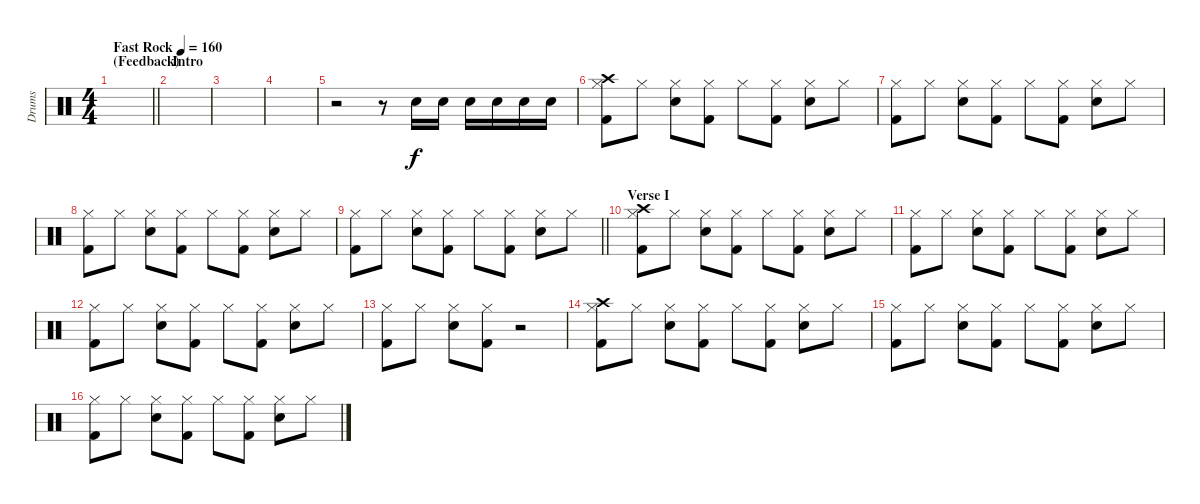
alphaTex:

\track ("Drums" "Drums") {instrument percussion}
\staff {score}
\articulation defaults
\ts (4 4)
\section ("" "(Feedback)")
\tempo (160 "Fast Rock")
\clef neutral
\barLineRight lightlight
\ks c
|
\section ("" "Intro")
|
|
|
r.2 r.8 "Snare (hit) 2".16 "Snare (hit) 2".16 "Snare (hit) 2".16 "Snare (hit) 2".16 "Snare (hit) 2".16 "Snare (hit) 2".16 |
("Crash high (hit)" "Hi-Hat (closed)" "Kick (hit) 2").8 "Hi-Hat (closed)".8 ("Hi-Hat (closed)" "Snare (hit) 2").8 ("Hi-Hat (closed)" "Kick (hit) 2").8 "Hi-Hat (closed)".8 ("Hi-Hat (closed)" "Kick (hit) 2").8 ("Hi-Hat (closed)" "Snare (hit) 2").8 "Hi-Hat (closed)".8 |
("Hi-Hat (closed)" "Kick (hit) 2").8 "Hi-Hat (closed)".8 ("Hi-Hat (closed)" "Snare (hit) 2").8 ("Hi-Hat (closed)" "Kick (hit) 2").8 "Hi-Hat (closed)".8 ("Hi-Hat (closed)" "Kick (hit) 2").8 ("Hi-Hat (closed)" "Snare (hit) 2").8 "Hi-Hat (closed)".8 |
("Hi-Hat (closed)" "Kick (hit) 2").8 "Hi-Hat (closed)".8 ("Hi-Hat (closed)" "Snare (hit) 2").8 ("Hi-Hat (closed)" "Kick (hit) 2").8 "Hi-Hat (closed)".8 ("Hi-Hat (closed)" "Kick (hit) 2").8 ("Hi-Hat (closed)" "Snare (hit) 2").8 "Hi-Hat (closed)".8 |
\barLineRight lightlight
("Hi-Hat (closed)" "Kick (hit) 2").8 "Hi-Hat (closed)".8 ("Hi-Hat (closed)" "Snare (hit) 2").8 ("Hi-Hat (closed)" "Kick (hit) 2").8 "Hi-Hat (closed)".8 ("Hi-Hat (closed)" "Kick (hit) 2").8 ("Hi-Hat (closed)" "Snare (hit) 2").8 "Hi-Hat (closed)".8 |
\section ("" "Verse I")
("Crash high (hit)" "Hi-Hat (closed)" "Kick (hit) 2").8 "Hi-Hat (closed)".8 ("Hi-Hat (closed)" "Snare (hit) 2").8 ("Hi-Hat (closed)" "Kick (hit) 2").8 "Hi-Hat (closed)".8 ("Hi-Hat (closed)" "Kick (hit) 2").8 ("Hi-Hat (closed)" "Snare (hit) 2").8 "Hi-Hat (closed)".8 |
("Hi-Hat (closed)" "Kick (hit) 2").8 "Hi-Hat (closed)".8 ("Hi-Hat (closed)" "Snare (hit) 2").8 ("Hi-Hat (closed)" "Kick (hit) 2").8 "Hi-Hat (closed)".8 ("Hi-Hat (closed)" "Kick (hit) 2").8 ("Hi-Hat (closed)" "Snare (hit) 2").8 "Hi-Hat (closed)".8 |
("Hi-Hat (closed)" "Kick (hit) 2").8 "Hi-Hat (closed)".8 ("Hi-Hat (closed)" "Snare (hit) 2").8 ("Hi-Hat (closed)" "Kick (hit) 2").8 "Hi-Hat (closed)".8 ("Hi-Hat (closed)" "Kick (hit) 2").8 ("Hi-Hat (closed)" "Snare (hit) 2").8 "Hi-Hat (closed)".8 |
("Hi-Hat (closed)" "Kick (hit) 2").8 "Hi-Hat (closed)".8 ("Hi-Hat (closed)" "Snare (hit) 2").8 ("Hi-Hat (closed)" "Kick (hit) 2").8 r.2 |
("Crash high (hit)" "Hi-Hat (closed)" "Kick (hit) 2").8 "Hi-Hat (closed)".8 ("Hi-Hat (closed)" "Snare (hit) 2").8 ("Hi-Hat (closed)" "Kick (hit) 2").8 "Hi-Hat (closed)".8 ("Hi-Hat (closed)" "Kick (hit) 2").8 ("Hi-Hat (closed)" "Snare (hit) 2").8 "Hi-Hat (closed)".8 |
("Hi-Hat (closed)" "Kick (hit) 2").8 "Hi-Hat (closed)".8 ("Hi-Hat (closed)" "Snare (hit) 2").8 ("Hi-Hat (closed)" "Kick (hit) 2").8 "Hi-Hat (closed)".8 ("Hi-Hat (closed)" "Kick (hit) 2").8 ("Hi-Hat (closed)" "Snare (hit) 2").8 "Hi-Hat (closed)".8 |
("Hi-Hat (closed)" "Kick (hit) 2").8 "Hi-Hat (closed)".8 ("Hi-Hat (closed)" "Snare (hit) 2").8 ("Hi-Hat (closed)" "Kick (hit) 2").8 "Hi-Hat (closed)".8 ("Hi-Hat (closed)" "Kick (hit) 2").8 ("Hi-Hat (closed)" "Snare (hit) 2").8 "Hi-Hat (closed)".8
